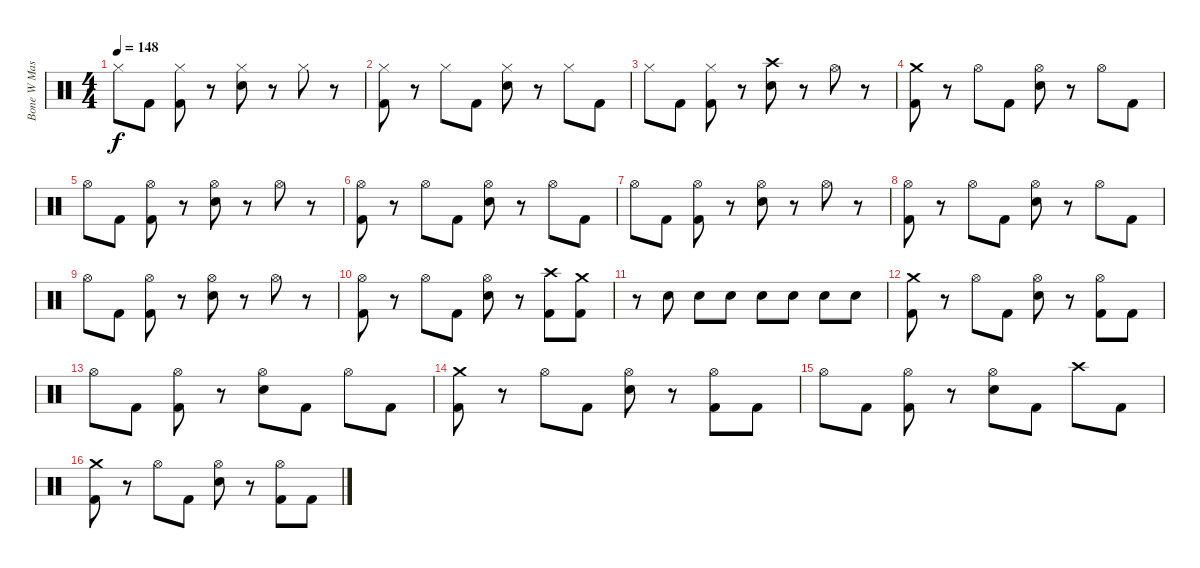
\track ("Bone W Mashine" "Bone W Mas") {instrument percussion}
\staff {score}
\articulation defaults
\ts (4 4)
\tempo 148
\clef neutral
\ks c "Hi-Hat (closed)".8{dy f} "Kick (hit) 2".8
("Hi-Hat (closed)" "Kick (hit) 2").8 r.8 ("Hi-Hat (closed)" "Electric Snare (hit)").8 r.8 "Hi-Hat (closed)".8 r.8 |
("Hi-Hat (closed)" "Kick (hit) 2").8 r.8 "Hi-Hat (closed)".8 "Kick (hit) 2".8 ("Hi-Hat (closed)" "Electric Snare (hit)").8 r.8 "Hi-Hat (closed)".8 "Kick (hit) 2".8 |
"Hi-Hat (closed)".8 "Kick (hit) 2".8 ("Hi-Hat (closed)" "Kick (hit) 2").8 r.8 ("Crash high (hit)" "Electric Snare (hit)").8 r.8 "Hi-Hat (open)".8 r.8 |
("Crash medium (hit)" "Kick (hit) 2").8 r.8 "Hi-Hat (open)".8 "Kick (hit) 2".8 ("Hi-Hat (open)" "Electric Snare (hit)").8 r.8 "Hi-Hat (open)".8 "Kick (hit) 2".8 |
"Hi-Hat (open)".8 "Kick (hit) 2".8 ("Hi-Hat (open)" "Kick (hit) 2").8 r.8 ("Hi-Hat (open)" "Electric Snare (hit)").8 r.8 "Hi-Hat (open)".8 r.8 |
("Hi-Hat (open)" "Kick (hit) 2").8 r.8 "Hi-Hat (open)".8 "Kick (hit) 2".8 ("Hi-Hat (open)" "Electric Snare (hit)").8 r.8 "Hi-Hat (open)".8 "Kick (hit) 2".8 |
"Hi-Hat (open)".8 "Kick (hit) 2".8 ("Hi-Hat (open)" "Kick (hit) 2").8 r.8 ("Hi-Hat (open)" "Electric Snare (hit)").8 r.8 "Hi-Hat (open)".8 r.8 |
("Hi-Hat (open)" "Kick (hit) 2").8 r.8 "Hi-Hat (open)".8 "Kick (hit) 2".8 ("Hi-Hat (open)" "Electric Snare (hit)").8 r.8 "Hi-Hat (open)".8 "Kick (hit) 2".8 |
"Hi-Hat (open)".8 "Kick (hit) 2".8 ("Hi-Hat (open)" "Kick (hit) 2").8 r.8 ("Hi-Hat (open)" "Electric Snare (hit)").8 r.8 "Hi-Hat (open)".8 r.8 |
("Hi-Hat (open)" "Kick (hit) 2").8 r.8 "Hi-Hat (open)".8 "Kick (hit) 2".8 ("Hi-Hat (open)" "Electric Snare (hit)").8 r.8 ("Crash high (hit)" "Kick (hit) 2").8 ("Crash medium (hit)" "Kick (hit) 2").8 |
r.8 "Electric Snare (hit)".8 "Electric Snare (hit)".8 "Electric Snare (hit)".8 "Electric Snare (hit)".8 "Electric Snare (hit)".8 "Electric Snare (hit)".8 "Electric Snare (hit)".8 |
("Crash medium (hit)" "Kick (hit) 2").8 r.8 "Hi-Hat (open)".8 "Kick (hit) 2".8 ("Hi-Hat (open)" "Electric Snare (hit)").8 r.8 ("Hi-Hat (open)" "Kick (hit) 2").8 "Kick (hit) 2".8 |
"Hi-Hat (open)".8 "Kick (hit) 2".8 ("Hi-Hat (open)" "Kick (hit) 2").8 r.8 ("Hi-Hat (open)" "Electric Snare (hit)").8 "Kick (hit) 2".8 "Hi-Hat (open)".8 "Kick (hit) 2".8 |
("Crash medium (hit)" "Kick (hit) 2").8 r.8 "Hi-Hat (open)".8 "Kick (hit) 2".8 ("Hi-Hat (open)" "Electric Snare (hit)").8 r.8 ("Hi-Hat (open)" "Kick (hit) 2").8 "Kick (hit) 2".8 |
"Hi-Hat (open)".8 "Kick (hit) 2".8 ("Hi-Hat (open)" "Kick (hit) 2").8 r.8 ("Hi-Hat (open)" "Electric Snare (hit)").8 "Kick (hit) 2".8 "Crash high (hit)".8 "Kick (hit) 2".8 |
("Crash medium (hit)" "Kick (hit) 2").8 r.8 "Hi-Hat (open)".8 "Kick (hit) 2".8 ("Hi-Hat (open)" "Electric Snare (hit)").8 r.8 ("Hi-Hat (open)" "Kick (hit) 2").8 "Kick (hit) 2".8
